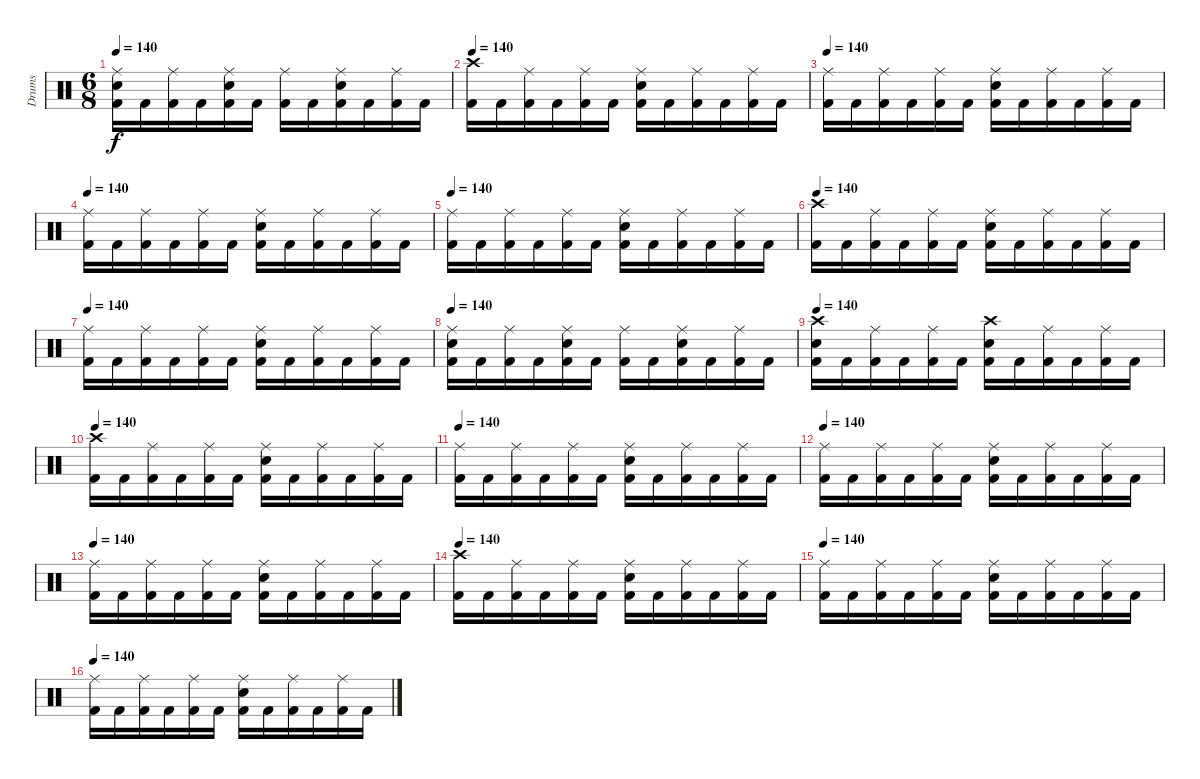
\track ("Drums" "Drums") {instrument percussion}
\staff {score}
\articulation defaults
\ts (6 8)
\tempo 140
\clef neutral
\ks c
("Kick (hit) 2" "Electric Snare (hit)" "Ride (middle)").16{dy f} "Kick (hit) 2".16 ("Kick (hit) 2" "Ride (middle)").16 "Kick (hit) 2".16 ("Kick (hit) 2" "Electric Snare (hit)" "Ride (middle)").16 "Kick (hit) 2".16 ("Kick (hit) 2" "Ride (middle)").16 "Kick (hit) 2".16 ("Kick (hit) 2" "Electric Snare (hit)" "Ride (middle)").16 "Kick (hit) 2".16 ("Kick (hit) 2" "Ride (middle)").16 "Kick (hit) 2".16 |
\tempo 140
("Kick (hit) 2" "Crash high (hit)").16 "Kick (hit) 2".16 ("Kick (hit) 2" "Ride (middle)").16 "Kick (hit) 2".16 ("Kick (hit) 2" "Ride (middle)").16 "Kick (hit) 2".16 ("Kick (hit) 2" "Electric Snare (hit)" "Ride (middle)").16 "Kick (hit) 2".16 ("Kick (hit) 2" "Ride (middle)").16 "Kick (hit) 2".16 ("Kick (hit) 2" "Ride (middle)").16 "Kick (hit) 2".16 |
\tempo 140
("Kick (hit) 2" "Ride (middle)").16 "Kick (hit) 2".16 ("Kick (hit) 2" "Ride (middle)").16 "Kick (hit) 2".16 ("Kick (hit) 2" "Ride (middle)").16 "Kick (hit) 2".16 ("Kick (hit) 2" "Electric Snare (hit)" "Ride (middle)").16 "Kick (hit) 2".16 ("Kick (hit) 2" "Ride (middle)").16 "Kick (hit) 2".16 ("Kick (hit) 2" "Ride (middle)").16 "Kick (hit) 2".16 |
\tempo 140
("Kick (hit) 2" "Ride (middle)").16 "Kick (hit) 2".16 ("Kick (hit) 2" "Ride (middle)").16 "Kick (hit) 2".16 ("Kick (hit) 2" "Ride (middle)").16 "Kick (hit) 2".16 ("Kick (hit) 2" "Electric Snare (hit)" "Ride (middle)").16 "Kick (hit) 2".16 ("Kick (hit) 2" "Ride (middle)").16 "Kick (hit) 2".16 ("Kick (hit) 2" "Ride (middle)").16 "Kick (hit) 2".16 |
\tempo 140
("Kick (hit) 2" "Ride (middle)").16 "Kick (hit) 2".16 ("Kick (hit) 2" "Ride (middle)").16 "Kick (hit) 2".16 ("Kick (hit) 2" "Ride (middle)").16 "Kick (hit) 2".16 ("Kick (hit) 2" "Electric Snare (hit)" "Ride (middle)").16 "Kick (hit) 2".16 ("Kick (hit) 2" "Ride (middle)").16 "Kick (hit) 2".16 ("Kick (hit) 2" "Ride (middle)").16 "Kick (hit) 2".16 |
\tempo 140
("Kick (hit) 2" "Crash high (hit)").16 "Kick (hit) 2".16 ("Kick (hit) 2" "Ride (middle)").16 "Kick (hit) 2".16 ("Kick (hit) 2" "Ride (middle)").16 "Kick (hit) 2".16 ("Kick (hit) 2" "Electric Snare (hit)" "Ride (middle)").16 "Kick (hit) 2".16 ("Kick (hit) 2" "Ride (middle)").16 "Kick (hit) 2".16 ("Kick (hit) 2" "Ride (middle)").16 "Kick (hit) 2".16 |
\tempo 140
("Kick (hit) 2" "Ride (middle)").16 "Kick (hit) 2".16 ("Kick (hit) 2" "Ride (middle)").16 "Kick (hit) 2".16 ("Kick (hit) 2" "Ride (middle)").16 "Kick (hit) 2".16 ("Kick (hit) 2" "Electric Snare (hit)" "Ride (middle)").16 "Kick (hit) 2".16 ("Kick (hit) 2" "Ride (middle)").16 "Kick (hit) 2".16 ("Kick (hit) 2" "Ride (middle)").16 "Kick (hit) 2".16 |
\tempo 140
("Kick (hit) 2" "Electric Snare (hit)" "Ride (middle)").16 "Kick (hit) 2".16 ("Kick (hit) 2" "Ride (middle)").16 "Kick (hit) 2".16 ("Kick (hit) 2" "Electric Snare (hit)" "Ride (middle)").16 "Kick (hit) 2".16 ("Kick (hit) 2" "Ride (middle)").16 "Kick (hit) 2".16 ("Kick (hit) 2" "Electric Snare (hit)" "Ride (middle)").16 "Kick (hit) 2".16 ("Kick (hit) 2" "Ride (middle)").16 "Kick (hit) 2".16 |
\tempo 140
("Kick (hit) 2" "Electric Snare (hit)" "Crash high (hit)").16 "Kick (hit) 2".16 ("Kick (hit) 2" "Ride (middle)").16 "Kick (hit) 2".16 ("Kick (hit) 2" "Ride (middle)").16 "Kick (hit) 2".16 ("Kick (hit) 2" "Electric Snare (hit)" "Crash high (hit)").16 "Kick (hit) 2".16 ("Kick (hit) 2" "Ride (middle)").16 "Kick (hit) 2".16 ("Kick (hit) 2" "Ride (middle)").16 "Kick (hit) 2".16 |
\tempo 140
("Kick (hit) 2" "Crash high (hit)").16 "Kick (hit) 2".16 ("Kick (hit) 2" "Ride (middle)").16 "Kick (hit) 2".16 ("Kick (hit) 2" "Ride (middle)").16 "Kick (hit) 2".16 ("Kick (hit) 2" "Electric Snare (hit)" "Ride (middle)").16 "Kick (hit) 2".16 ("Kick (hit) 2" "Ride (middle)").16 "Kick (hit) 2".16 ("Kick (hit) 2" "Ride (middle)").16 "Kick (hit) 2".16 |
\tempo 140
("Kick (hit) 2" "Ride (middle)").16 "Kick (hit) 2".16 ("Kick (hit) 2" "Ride (middle)").16 "Kick (hit) 2".16 ("Kick (hit) 2" "Ride (middle)").16 "Kick (hit) 2".16 ("Kick (hit) 2" "Electric Snare (hit)" "Ride (middle)").16 "Kick (hit) 2".16 ("Kick (hit) 2" "Ride (middle)").16 "Kick (hit) 2".16 ("Kick (hit) 2" "Ride (middle)").16 "Kick (hit) 2".16 |
\tempo 140
("Kick (hit) 2" "Ride (middle)").16 "Kick (hit) 2".16 ("Kick (hit) 2" "Ride (middle)").16 "Kick (hit) 2".16 ("Kick (hit) 2" "Ride (middle)").16 "Kick (hit) 2".16 ("Kick (hit) 2" "Electric Snare (hit)" "Ride (middle)").16 "Kick (hit) 2".16 ("Kick (hit) 2" "Ride (middle)").16 "Kick (hit) 2".16 ("Kick (hit) 2" "Ride (middle)").16 "Kick (hit) 2".16 |
\tempo 140
("Kick (hit) 2" "Ride (middle)").16 "Kick (hit) 2".16 ("Kick (hit) 2" "Ride (middle)").16 "Kick (hit) 2".16 ("Kick (hit) 2" "Ride (middle)").16 "Kick (hit) 2".16 ("Kick (hit) 2" "Electric Snare (hit)" "Ride (middle)").16 "Kick (hit) 2".16 ("Kick (hit) 2" "Ride (middle)").16 "Kick (hit) 2".16 ("Kick (hit) 2" "Ride (middle)").16 "Kick (hit) 2".16 |
\tempo 140
("Kick (hit) 2" "Crash high (hit)").16 "Kick (hit) 2".16 ("Kick (hit) 2" "Ride (middle)").16 "Kick (hit) 2".16 ("Kick (hit) 2" "Ride (middle)").16 "Kick (hit) 2".16 ("Kick (hit) 2" "Electric Snare (hit)" "Ride (middle)").16 "Kick (hit) 2".16 ("Kick (hit) 2" "Ride (middle)").16 "Kick (hit) 2".16 ("Kick (hit) 2" "Ride (middle)").16 "Kick (hit) 2".16 |
\tempo 140
("Kick (hit) 2" "Ride (middle)").16 "Kick (hit) 2".16 ("Kick (hit) 2" "Ride (middle)").16 "Kick (hit) 2".16 ("Kick (hit) 2" "Ride (middle)").16 "Kick (hit) 2".16 ("Kick (hit) 2" "Electric Snare (hit)" "Ride (middle)").16 "Kick (hit) 2".16 ("Kick (hit) 2" "Ride (middle)").16 "Kick (hit) 2".16 ("Kick (hit) 2" "Ride (middle)").16 "Kick (hit) 2".16 |
\tempo 140
("Kick (hit) 2" "Ride (middle)").16 "Kick (hit) 2".16 ("Kick (hit) 2" "Ride (middle)").16 "Kick (hit) 2".16 ("Kick (hit) 2" "Ride (middle)").16 "Kick (hit) 2".16 ("Kick (hit) 2" "Electric Snare (hit)" "Ride (middle)").16 "Kick (hit) 2".16 ("Kick (hit) 2" "Ride (middle)").16 "Kick (hit) 2".16 ("Kick (hit) 2" "Ride (middle)").16 "Kick (hit) 2".16
